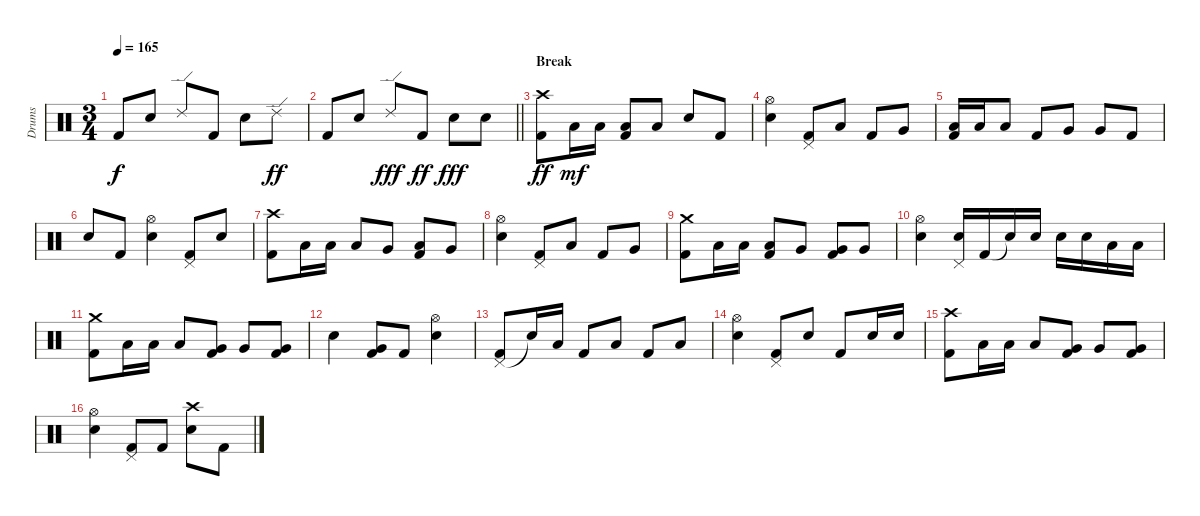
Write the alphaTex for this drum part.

\track ("Drums" "Drums") {instrument percussion}
\staff {score}
\articulation defaults
\ts (3 4)
\tempo 165
\clef neutral
\ks c "Kick (hit) 2".8{dy f} "Snare (hit) 2".8 "Ride (edge) 2".8 "Kick (hit) 2".8 "Snare (hit) 2".8 "Ride (edge) 2".8{dy ff}
|
\barLineRight lightlight "Kick (hit) 2".8 "Snare (hit) 2".8 "Ride (edge) 2".8{dy fff} "Kick (hit) 2".8{dy ff} "Snare (hit) 2".8{dy fff} "Snare (hit) 2".8
|
\section ("" "Break")
("Crash high (hit)" "Kick (hit) 2").8{dy ff} "Low Tom (hit)".16{dy mf} "Low Tom (hit)".16 ("Low Tom (hit)" "Kick (hit) 2").8 "Low Tom (hit)".8 "Snare (hit) 2".8 "Kick (hit) 2".8 |
("Hi-Hat (open)" "Snare (hit) 2").4 ("Pedal Hi-Hat (hit)" "Kick (hit) 2").8 "Low Tom (hit)".8 "Kick (hit) 2".8 "Very Low Tom (hit)".8 |
("Low Tom (hit)" "Kick (hit) 2").16 "Low Tom (hit)".16 "Low Tom (hit)".8 "Kick (hit) 2".8 "Very Low Tom (hit)".8 "Very Low Tom (hit)".8 "Kick (hit) 2".8 |
"Snare (hit) 2".8 "Kick (hit) 2".8 ("Hi-Hat (open)" "Snare (hit) 2").4 ("Pedal Hi-Hat (hit)" "Kick (hit) 2").8 "Snare (hit) 2".8 |
("Crash high (hit)" "Kick (hit) 2").8 "Low Tom (hit)".16 "Low Tom (hit)".16 "Low Tom (hit)".8 "Very Low Tom (hit)".8 ("Low Tom (hit)" "Kick (hit) 2").8 "Very Low Tom (hit)".8 |
("Hi-Hat (open)" "Snare (hit) 2").4 ("Pedal Hi-Hat (hit)" "Kick (hit) 2").8 "Low Tom (hit)".8 "Kick (hit) 2".8 "Very Low Tom (hit)".8 |
("Crash medium (hit)" "Kick (hit) 2").8 "Low Tom (hit)".16 "Low Tom (hit)".16 ("Low Tom (hit)" "Kick (hit) 2").8 "Very Low Tom (hit)".8 ("Very Low Tom (hit)" "Kick (hit) 2").8 "Very Low Tom (hit)".8 |
("Hi-Hat (open)" "Snare (hit) 2").4 ("Pedal Hi-Hat (hit)" "Snare (hit) 2").16 "Kick (hit) 2".16 "Snare (hit)"{t}.16 "Snare (hit) 2".16 "Snare (hit) 2".16 "Snare (hit) 2".16 "Low Tom (hit)".16 "Low Tom (hit)".16 |
("Crash medium (hit)" "Kick (hit) 2").8 "Low Tom (hit)".16 "Low Tom (hit)".16 "Low Tom (hit)".8 ("Very Low Tom (hit)" "Kick (hit) 2").8 "Very Low Tom (hit)".8 ("Very Low Tom (hit)" "Kick (hit) 2").8 |
"Snare (hit) 2".4 ("Very Low Tom (hit)" "Kick (hit) 2").8 "Kick (hit) 2".8 ("Hi-Hat (open)" "Snare (hit) 2").4 |
("Pedal Hi-Hat (hit)" "Kick (hit) 2").8 "Snare (hit)"{t}.16 "Low Tom (hit)".16 "Kick (hit) 2".8 "Low Tom (hit)".8 "Kick (hit) 2".8 "Low Tom (hit)".8 |
("Hi-Hat (open)" "Snare (hit) 2").4 ("Pedal Hi-Hat (hit)" "Kick (hit) 2").8 "Snare (hit) 2".8 "Kick (hit) 2".8 "Snare (hit) 2".16 "Snare (hit) 2".16 |
("Crash high (hit)" "Kick (hit) 2").8 "Low Tom (hit)".16 "Low Tom (hit)".16 "Low Tom (hit)".8 ("Very Low Tom (hit)" "Kick (hit) 2").8 "Very Low Tom (hit)".8 ("Very Low Tom (hit)" "Kick (hit) 2").8 |
("Hi-Hat (open)" "Snare (hit) 2").4 ("Pedal Hi-Hat (hit)" "Kick (hit) 2").8 "Kick (hit) 2".8 ("Crash high (hit)" "Snare (hit) 2").8 "Kick (hit) 2".8
